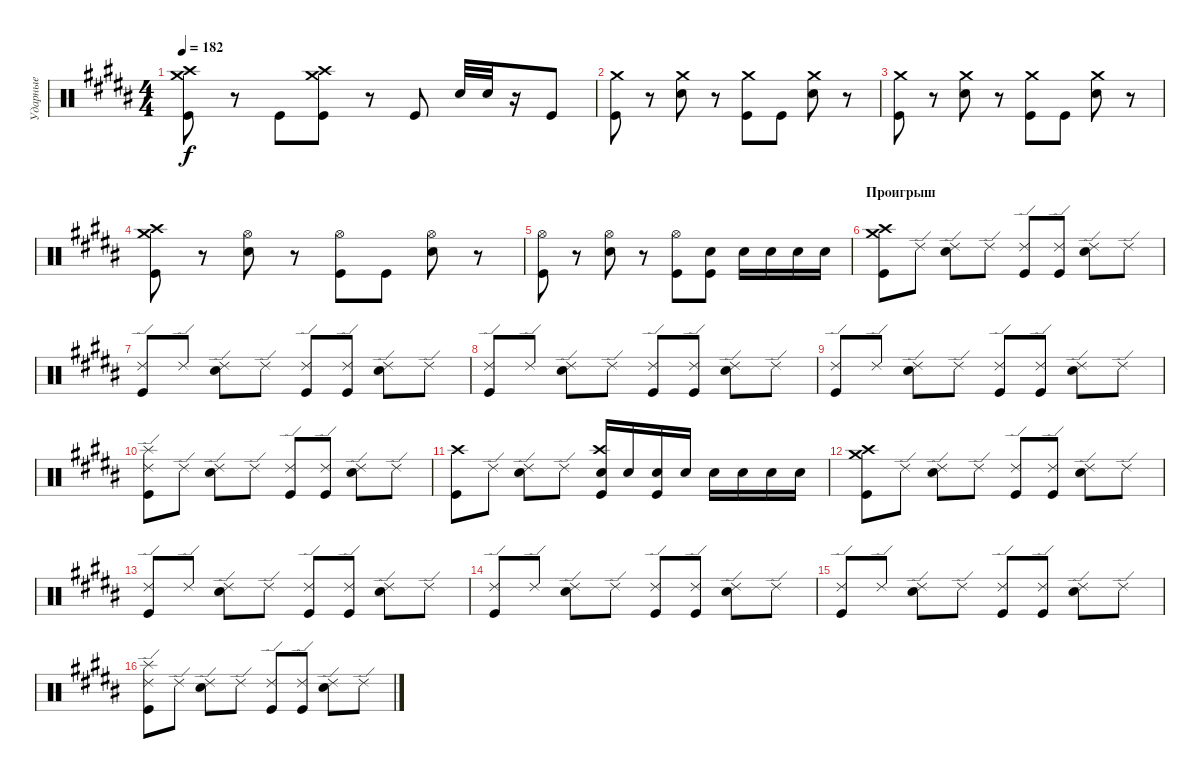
\track ("Ударные" "Ударные") {instrument percussion}
\staff {score}
\articulation defaults
\ts (4 4)
\tempo 182
\clef neutral
\ks b
("Kick (hit)" "Crash high (hit)" "Crash medium (hit)").8{dy f} r.8 "Kick (hit)".8 ("Kick (hit)" "Crash high (hit)" "Crash medium (hit)").8 r.8 "Kick (hit)".8 "Electric Snare (hit)".32 "Electric Snare (hit)".32 r.16 "Kick (hit)".8 |
("Crash medium (hit)" "Kick (hit)").8 r.8 ("Crash medium (hit)" "Electric Snare (hit)").8 r.8 ("Crash medium (hit)" "Kick (hit)").8 "Kick (hit)".8 ("Crash medium (hit)" "Electric Snare (hit)").8 r.8 |
("Crash medium (hit)" "Kick (hit)").8 r.8 ("Crash medium (hit)" "Electric Snare (hit)").8 r.8 ("Crash medium (hit)" "Kick (hit)").8 "Kick (hit)".8 ("Crash medium (hit)" "Electric Snare (hit)").8 r.8 |
("Crash medium (hit)" "Crash high (hit)" "Kick (hit)").8 r.8 ("Electric Snare (hit)" "Hi-Hat (open)").8 r.8 ("Kick (hit)" "Hi-Hat (open)").8 "Kick (hit)".8 ("Electric Snare (hit)" "Hi-Hat (open)").8 r.8 |
("Hi-Hat (open)" "Kick (hit)").8 r.8 ("Hi-Hat (open)" "Electric Snare (hit)").8 r.8 ("Kick (hit)" "Hi-Hat (open)").8 ("Electric Snare (hit)" "Kick (hit)").8 "Electric Snare (hit)".16 "Electric Snare (hit)".16 "Electric Snare (hit)".16 "Electric Snare (hit)".16 |
\section ("" "Проигрыш")
("Crash high (hit)" "Kick (hit)" "Crash medium (hit)").8 "Ride (edge) 2".8 ("Electric Snare (hit)" "Ride (edge) 2").8 "Ride (edge) 2".8 ("Kick (hit)" "Ride (edge) 2").8 ("Kick (hit)" "Ride (edge) 2").8 ("Electric Snare (hit)" "Ride (edge) 2").8 "Ride (edge) 2".8 |
("Ride (edge) 2" "Kick (hit)").8 "Ride (edge) 2".8 ("Electric Snare (hit)" "Ride (edge) 2").8 "Ride (edge) 2".8 ("Kick (hit)" "Ride (edge) 2").8 ("Kick (hit)" "Ride (edge) 2").8 ("Electric Snare (hit)" "Ride (edge) 2").8 "Ride (edge) 2".8 |
("Ride (edge) 2" "Kick (hit)").8 "Ride (edge) 2".8 ("Electric Snare (hit)" "Ride (edge) 2").8 "Ride (edge) 2".8 ("Kick (hit)" "Ride (edge) 2").8 ("Kick (hit)" "Ride (edge) 2").8 ("Electric Snare (hit)" "Ride (edge) 2").8 "Ride (edge) 2".8 |
("Ride (edge) 2" "Kick (hit)").8 "Ride (edge) 2".8 ("Electric Snare (hit)" "Ride (edge) 2").8 "Ride (edge) 2".8 ("Kick (hit)" "Ride (edge) 2").8 ("Kick (hit)" "Ride (edge) 2").8 ("Electric Snare (hit)" "Ride (edge) 2").8 "Ride (edge) 2".8 |
("Splash (hit)" "Kick (hit)" "Ride (edge) 2").8 "Ride (edge) 2".8 ("Electric Snare (hit)" "Ride (edge) 2").8 "Ride (edge) 2".8 ("Kick (hit)" "Ride (edge) 2").8 ("Kick (hit)" "Ride (edge) 2").8 ("Electric Snare (hit)" "Ride (edge) 2").8 "Ride (edge) 2".8 |
("Kick (hit)" "Crash high (hit)").8 "Ride (edge) 2".8 ("Electric Snare (hit)" "Ride (edge) 2").8 "Ride (edge) 2".8 ("Electric Snare (hit)" "Kick (hit)" "Crash high (hit)").16 "Electric Snare (hit)".16 ("Electric Snare (hit)" "Kick (hit)").16 "Electric Snare (hit)".16 "Electric Snare (hit)".16 "Electric Snare (hit)".16 "Electric Snare (hit)".16 "Electric Snare (hit)".16 |
("Crash high (hit)" "Kick (hit)" "Crash medium (hit)").8 "Ride (edge) 2".8 ("Electric Snare (hit)" "Ride (edge) 2").8 "Ride (edge) 2".8 ("Kick (hit)" "Ride (edge) 2").8 ("Kick (hit)" "Ride (edge) 2").8 ("Electric Snare (hit)" "Ride (edge) 2").8 "Ride (edge) 2".8 |
("Ride (edge) 2" "Kick (hit)").8 "Ride (edge) 2".8 ("Electric Snare (hit)" "Ride (edge) 2").8 "Ride (edge) 2".8 ("Kick (hit)" "Ride (edge) 2").8 ("Kick (hit)" "Ride (edge) 2").8 ("Electric Snare (hit)" "Ride (edge) 2").8 "Ride (edge) 2".8 |
("Ride (edge) 2" "Kick (hit)").8 "Ride (edge) 2".8 ("Electric Snare (hit)" "Ride (edge) 2").8 "Ride (edge) 2".8 ("Kick (hit)" "Ride (edge) 2").8 ("Kick (hit)" "Ride (edge) 2").8 ("Electric Snare (hit)" "Ride (edge) 2").8 "Ride (edge) 2".8 |
("Ride (edge) 2" "Kick (hit)").8 "Ride (edge) 2".8 ("Electric Snare (hit)" "Ride (edge) 2").8 "Ride (edge) 2".8 ("Kick (hit)" "Ride (edge) 2").8 ("Kick (hit)" "Ride (edge) 2").8 ("Electric Snare (hit)" "Ride (edge) 2").8 "Ride (edge) 2".8 |
("Splash (hit)" "Kick (hit)" "Ride (edge) 2").8 "Ride (edge) 2".8 ("Electric Snare (hit)" "Ride (edge) 2").8 "Ride (edge) 2".8 ("Kick (hit)" "Ride (edge) 2").8 ("Kick (hit)" "Ride (edge) 2").8 ("Electric Snare (hit)" "Ride (edge) 2").8 "Ride (edge) 2".8
